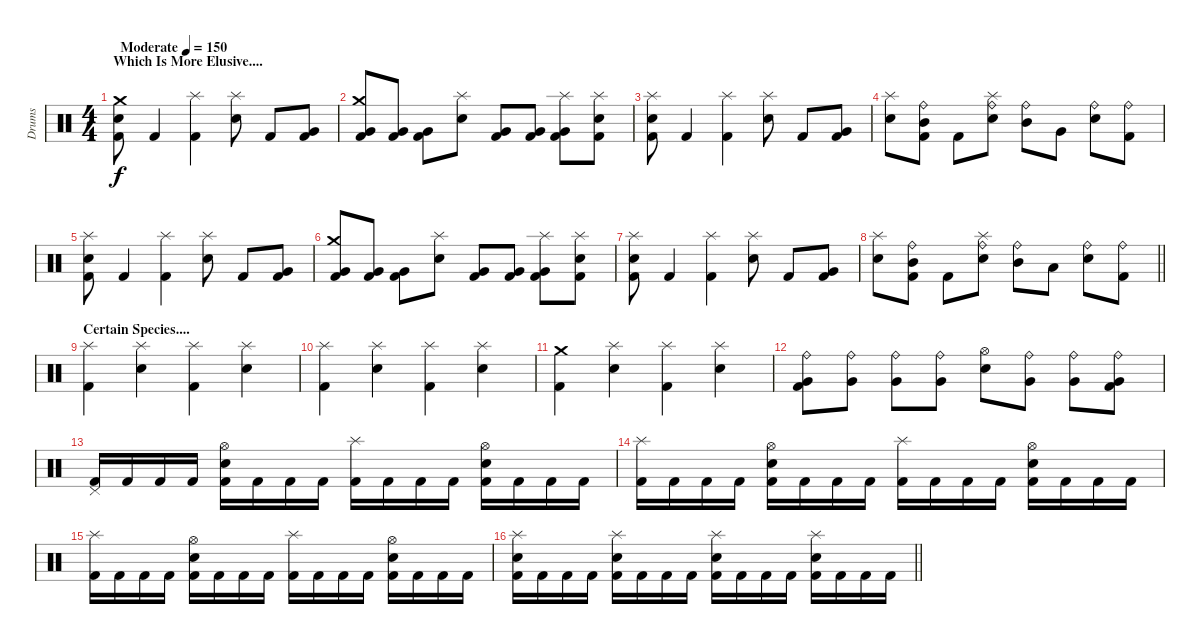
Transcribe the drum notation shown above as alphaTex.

\track ("Drums" "Drums") {instrument percussion}
\staff {score}
\articulation defaults
\ts (4 4)
\section ("" "Which Is More Elusive....")
\tempo (150 "Moderate")
\clef neutral
\ks c
("Kick (hit) 2" "Electric Snare (hit)" "Crash medium (hit)").8{dy f} "Kick (hit) 2".4 ("Kick (hit) 2" "Splash (hit)").4 ("Electric Snare (hit)" "Splash (hit)").8 "Kick (hit) 2".8 ("Kick (hit) 2" "Very Low Tom (hit)").8 |
("Kick (hit) 2" "Very Low Tom (hit)" "Crash medium (hit)").8 ("Kick (hit) 2" "Very Low Tom (hit)").8 ("Kick (hit) 2" "Very Low Tom (hit)").8 ("Electric Snare (hit)" "Splash (hit)").8 ("Kick (hit) 2" "Very Low Tom (hit)").8 ("Kick (hit) 2" "Very Low Tom (hit)").8 ("Kick (hit) 2" "Very Low Tom (hit)" "Splash (hit)").8 ("Kick (hit) 2" "Electric Snare (hit)" "Splash (hit)").8 |
("Kick (hit) 2" "Electric Snare (hit)" "Splash (hit)").8 "Kick (hit) 2".4 ("Kick (hit) 2" "Splash (hit)").4 ("Electric Snare (hit)" "Splash (hit)").8 "Kick (hit) 2".8 ("Kick (hit) 2" "Very Low Tom (hit)").8 |
("Electric Snare (hit)" "Splash (hit)").8 ("Ride (bell)" "Kick (hit) 2" "Mid Tom (hit)").8 "Kick (hit) 2".8 ("Ride (bell)" "Electric Snare (hit)" "Splash (hit)").8 ("Ride (bell)" "Mid Tom (hit)").8 "Very Low Tom (hit)".8 ("Ride (bell)" "Electric Snare (hit)").8 ("Ride (bell)" "Kick (hit) 2").8 |
("Kick (hit) 2" "Electric Snare (hit)" "Splash (hit)").8 "Kick (hit) 2".4 ("Kick (hit) 2" "Splash (hit)").4 ("Electric Snare (hit)" "Splash (hit)").8 "Kick (hit) 2".8 ("Kick (hit) 2" "Very Low Tom (hit)").8 |
("Kick (hit) 2" "Very Low Tom (hit)" "Crash medium (hit)").8 ("Kick (hit) 2" "Very Low Tom (hit)").8 ("Kick (hit) 2" "Very Low Tom (hit)").8 ("Electric Snare (hit)" "Splash (hit)").8 ("Kick (hit) 2" "Very Low Tom (hit)").8 ("Kick (hit) 2" "Very Low Tom (hit)").8 ("Kick (hit) 2" "Very Low Tom (hit)" "Splash (hit)").8 ("Kick (hit) 2" "Electric Snare (hit)" "Splash (hit)").8 |
("Kick (hit) 2" "Electric Snare (hit)" "Splash (hit)").8 "Kick (hit) 2".4 ("Kick (hit) 2" "Splash (hit)").4 ("Electric Snare (hit)" "Splash (hit)").8 "Kick (hit) 2".8 ("Kick (hit) 2" "Very Low Tom (hit)").8 |
\barLineRight lightlight
("Electric Snare (hit)" "Splash (hit)").8 ("Ride (bell)" "Kick (hit) 2" "Mid Tom (hit)").8 "Kick (hit) 2".8 ("Ride (bell)" "Electric Snare (hit)" "Splash (hit)").8 ("Ride (bell)" "Mid Tom (hit)").8 "Low Floor Tom (hit)".8 ("Ride (bell)" "Electric Snare (hit)").8 ("Ride (bell)" "Kick (hit) 2").8 |
\section ("" "Certain Species....")
("Kick (hit) 2" "Splash (hit)").4 ("Electric Snare (hit)" "Splash (hit)").4 ("Kick (hit) 2" "Splash (hit)").4 ("Electric Snare (hit)" "Splash (hit)").4 |
("Kick (hit) 2" "Splash (hit)").4 ("Electric Snare (hit)" "Splash (hit)").4 ("Kick (hit) 2" "Splash (hit)").4 ("Electric Snare (hit)" "Splash (hit)").4 |
("Kick (hit) 2" "Crash medium (hit)").4 ("Electric Snare (hit)" "Splash (hit)").4 ("Kick (hit) 2" "Splash (hit)").4 ("Electric Snare (hit)" "Splash (hit)").4 |
("Kick (hit) 2" "Very Low Tom (hit)" "Ride (bell)").8 ("Very Low Tom (hit)" "Ride (bell)").8 ("Very Low Tom (hit)" "Ride (bell)").8 ("Very Low Tom (hit)" "Ride (bell)").8 ("Electric Snare (hit)" "Hi-Hat (open)").8 ("Very Low Tom (hit)" "Ride (bell)").8 ("Very Low Tom (hit)" "Ride (bell)").8 ("Kick (hit) 2" "Very Low Tom (hit)" "Ride (bell)").8 |
("Kick (hit) 2" "Pedal Hi-Hat (hit)").16 "Kick (hit) 2".16 "Kick (hit) 2".16 "Kick (hit) 2".16 ("Kick (hit) 2" "Electric Snare (hit)" "Hi-Hat (open)").16 "Kick (hit) 2".16 "Kick (hit) 2".16 "Kick (hit) 2".16 ("Kick (hit) 2" "Splash (hit)").16 "Kick (hit) 2".16 "Kick (hit) 2".16 "Kick (hit) 2".16 ("Kick (hit) 2" "Electric Snare (hit)" "Hi-Hat (open)").16 "Kick (hit) 2".16 "Kick (hit) 2".16 "Kick (hit) 2".16 |
("Kick (hit) 2" "Splash (hit)").16 "Kick (hit) 2".16 "Kick (hit) 2".16 "Kick (hit) 2".16 ("Kick (hit) 2" "Electric Snare (hit)" "Hi-Hat (open)").16 "Kick (hit) 2".16 "Kick (hit) 2".16 "Kick (hit) 2".16 ("Kick (hit) 2" "Splash (hit)").16 "Kick (hit) 2".16 "Kick (hit) 2".16 "Kick (hit) 2".16 ("Kick (hit) 2" "Electric Snare (hit)" "Hi-Hat (open)").16 "Kick (hit) 2".16 "Kick (hit) 2".16 "Kick (hit) 2".16 |
("Kick (hit) 2" "Splash (hit)").16 "Kick (hit) 2".16 "Kick (hit) 2".16 "Kick (hit) 2".16 ("Kick (hit) 2" "Electric Snare (hit)" "Hi-Hat (open)").16 "Kick (hit) 2".16 "Kick (hit) 2".16 "Kick (hit) 2".16 ("Kick (hit) 2" "Splash (hit)").16 "Kick (hit) 2".16 "Kick (hit) 2".16 "Kick (hit) 2".16 ("Kick (hit) 2" "Electric Snare (hit)" "Hi-Hat (open)").16 "Kick (hit) 2".16 "Kick (hit) 2".16 "Kick (hit) 2".16 |
\barLineRight lightlight
("Kick (hit) 2" "Electric Snare (hit)" "Splash (hit)").16 "Kick (hit) 2".16 "Kick (hit) 2".16 "Kick (hit) 2".16 ("Kick (hit) 2" "Electric Snare (hit)" "Splash (hit)").16 "Kick (hit) 2".16 "Kick (hit) 2".16 "Kick (hit) 2".16 ("Kick (hit) 2" "Electric Snare (hit)" "Splash (hit)").16 "Kick (hit) 2".16 "Kick (hit) 2".16 "Kick (hit) 2".16 ("Kick (hit) 2" "Electric Snare (hit)" "Splash (hit)").16 "Kick (hit) 2".16 "Kick (hit) 2".16 "Kick (hit) 2".16
